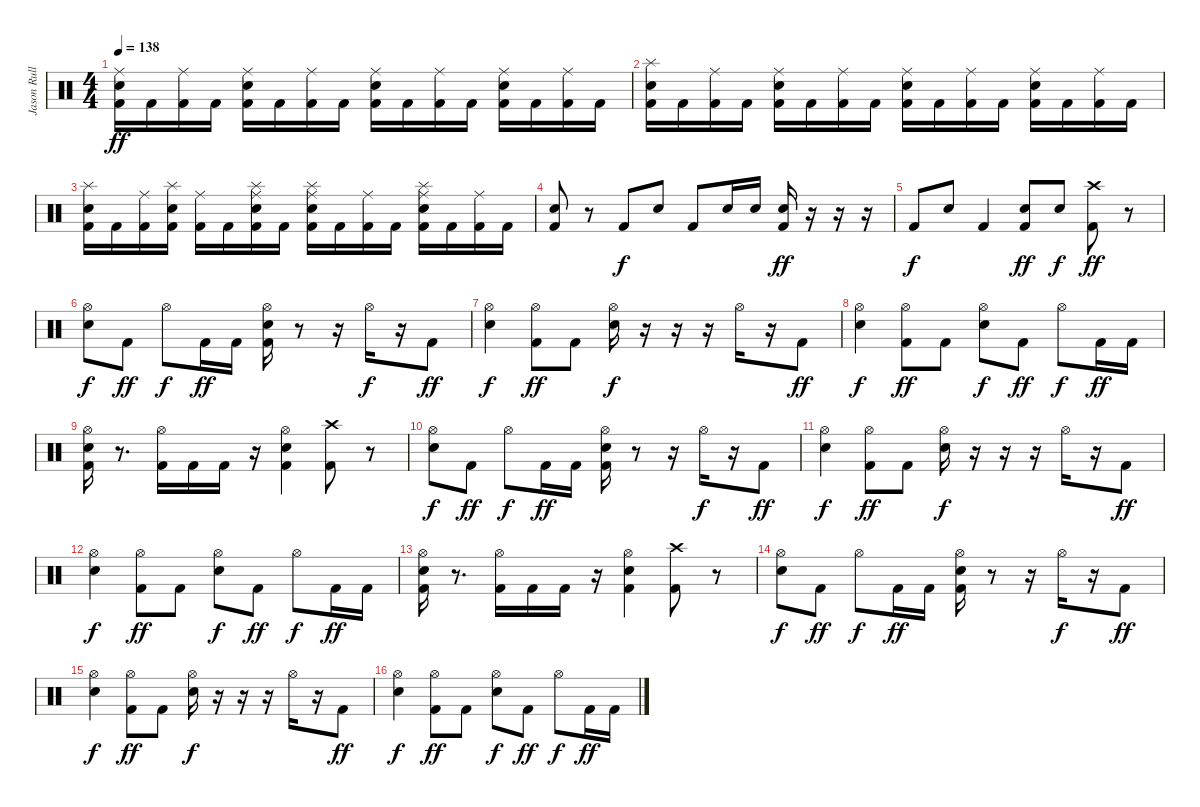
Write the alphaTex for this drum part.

\track ("Jason Rullo" "Jason Rull") {instrument percussion}
\staff {score}
\articulation defaults
\ts (4 4)
\tempo 138
\clef neutral
\ks c
("Kick (hit) 2" "Electric Snare (hit)" "Ride (middle)").16{dy ff} "Kick (hit) 2".16 ("Kick (hit) 2" "Ride (middle)").16 "Kick (hit) 2".16 ("Kick (hit) 2" "Electric Snare (hit)" "Ride (middle)").16 "Kick (hit) 2".16 ("Kick (hit) 2" "Ride (middle)").16 "Kick (hit) 2".16 ("Kick (hit) 2" "Electric Snare (hit)" "Ride (middle)").16 "Kick (hit) 2".16 ("Kick (hit) 2" "Ride (middle)").16 "Kick (hit) 2".16 ("Kick (hit) 2" "Electric Snare (hit)" "Ride (middle)").16 "Kick (hit) 2".16 ("Kick (hit) 2" "Ride (middle)").16 "Kick (hit) 2".16 |
("Kick (hit) 2" "Electric Snare (hit)" "Splash (hit)").16 "Kick (hit) 2".16 ("Kick (hit) 2" "Ride (middle)").16 "Kick (hit) 2".16 ("Kick (hit) 2" "Electric Snare (hit)" "Ride (middle)").16 "Kick (hit) 2".16 ("Kick (hit) 2" "Ride (middle)").16 "Kick (hit) 2".16 ("Kick (hit) 2" "Electric Snare (hit)" "Ride (middle)").16 "Kick (hit) 2".16 ("Kick (hit) 2" "Ride (middle)").16 "Kick (hit) 2".16 ("Kick (hit) 2" "Electric Snare (hit)" "Ride (middle)").16 "Kick (hit) 2".16 ("Kick (hit) 2" "Ride (middle)").16 "Kick (hit) 2".16 |
("Kick (hit) 2" "Electric Snare (hit)" "Splash (hit)").16 "Kick (hit) 2".16 ("Kick (hit) 2" "Ride (middle)").16 ("Kick (hit) 2" "Electric Snare (hit)" "Splash (hit)").16 ("Kick (hit) 2" "Ride (middle)").16 "Kick (hit) 2".16 ("Kick (hit) 2" "Electric Snare (hit)" "Ride (middle)" "Splash (hit)").16 "Kick (hit) 2".16 ("Kick (hit) 2" "Electric Snare (hit)" "Ride (middle)" "Splash (hit)").16 "Kick (hit) 2".16 ("Kick (hit) 2" "Ride (middle)").16 "Kick (hit) 2".16 ("Kick (hit) 2" "Electric Snare (hit)" "Ride (middle)" "Splash (hit)").16 "Kick (hit) 2".16 ("Kick (hit) 2" "Ride (middle)").16 "Kick (hit) 2".16 |
("Kick (hit) 2" "Electric Snare (hit)").8 r.8 "Kick (hit) 2".8{dy f} "Electric Snare (hit)".8 "Kick (hit) 2".8 "Electric Snare (hit)".16 "Electric Snare (hit)".16 ("Kick (hit) 2" "Electric Snare (hit)").16{dy ff} r.16 r.16 r.16 |
"Kick (hit) 2".8{dy f} "Electric Snare (hit)".8 "Kick (hit) 2".4 ("Kick (hit) 2" "Electric Snare (hit)").8{dy ff} "Electric Snare (hit)".8{dy f} ("Kick (hit) 2" "Crash high (hit)").8{dy ff} r.8 |
("Electric Snare (hit)" "Hi-Hat (open)").8{dy f} "Kick (hit) 2".8{dy ff} "Hi-Hat (open)".8{dy f} "Kick (hit) 2".16{dy ff} "Kick (hit) 2".16 ("Kick (hit) 2" "Electric Snare (hit)" "Hi-Hat (open)").16 r.8 r.16 "Hi-Hat (open)".16{dy f} r.16 "Kick (hit) 2".8{dy ff} |
("Electric Snare (hit)" "Hi-Hat (open)").4{dy f} ("Kick (hit) 2" "Hi-Hat (open)").8{dy ff} "Kick (hit) 2".8 ("Electric Snare (hit)" "Hi-Hat (open)").16{dy f} r.16 r.16 r.16 "Hi-Hat (open)".16 r.16 "Kick (hit) 2".8{dy ff} |
("Electric Snare (hit)" "Hi-Hat (open)").4{dy f} ("Kick (hit) 2" "Hi-Hat (open)").8{dy ff} "Kick (hit) 2".8 ("Electric Snare (hit)" "Hi-Hat (open)").8{dy f} "Kick (hit) 2".8{dy ff} "Hi-Hat (open)".8{dy f} "Kick (hit) 2".16{dy ff} "Kick (hit) 2".16 |
("Kick (hit) 2" "Electric Snare (hit)" "Hi-Hat (open)").16 r.8{d} ("Kick (hit) 2" "Hi-Hat (open)").16 "Kick (hit) 2".16 "Kick (hit) 2".16 r.16 ("Kick (hit) 2" "Electric Snare (hit)" "Hi-Hat (open)").4 ("Kick (hit) 2" "Crash high (hit)").8 r.8 |
("Electric Snare (hit)" "Hi-Hat (open)").8{dy f} "Kick (hit) 2".8{dy ff} "Hi-Hat (open)".8{dy f} "Kick (hit) 2".16{dy ff} "Kick (hit) 2".16 ("Kick (hit) 2" "Electric Snare (hit)" "Hi-Hat (open)").16 r.8 r.16 "Hi-Hat (open)".16{dy f} r.16 "Kick (hit) 2".8{dy ff} |
("Electric Snare (hit)" "Hi-Hat (open)").4{dy f} ("Kick (hit) 2" "Hi-Hat (open)").8{dy ff} "Kick (hit) 2".8 ("Electric Snare (hit)" "Hi-Hat (open)").16{dy f} r.16 r.16 r.16 "Hi-Hat (open)".16 r.16 "Kick (hit) 2".8{dy ff} |
("Electric Snare (hit)" "Hi-Hat (open)").4{dy f} ("Kick (hit) 2" "Hi-Hat (open)").8{dy ff} "Kick (hit) 2".8 ("Electric Snare (hit)" "Hi-Hat (open)").8{dy f} "Kick (hit) 2".8{dy ff} "Hi-Hat (open)".8{dy f} "Kick (hit) 2".16{dy ff} "Kick (hit) 2".16 |
("Kick (hit) 2" "Electric Snare (hit)" "Hi-Hat (open)").16 r.8{d} ("Kick (hit) 2" "Hi-Hat (open)").16 "Kick (hit) 2".16 "Kick (hit) 2".16 r.16 ("Kick (hit) 2" "Electric Snare (hit)" "Hi-Hat (open)").4 ("Kick (hit) 2" "Crash high (hit)").8 r.8 |
("Electric Snare (hit)" "Hi-Hat (open)").8{dy f} "Kick (hit) 2".8{dy ff} "Hi-Hat (open)".8{dy f} "Kick (hit) 2".16{dy ff} "Kick (hit) 2".16 ("Kick (hit) 2" "Electric Snare (hit)" "Hi-Hat (open)").16 r.8 r.16 "Hi-Hat (open)".16{dy f} r.16 "Kick (hit) 2".8{dy ff} |
("Electric Snare (hit)" "Hi-Hat (open)").4{dy f} ("Kick (hit) 2" "Hi-Hat (open)").8{dy ff} "Kick (hit) 2".8 ("Electric Snare (hit)" "Hi-Hat (open)").16{dy f} r.16 r.16 r.16 "Hi-Hat (open)".16 r.16 "Kick (hit) 2".8{dy ff} |
("Electric Snare (hit)" "Hi-Hat (open)").4{dy f} ("Kick (hit) 2" "Hi-Hat (open)").8{dy ff} "Kick (hit) 2".8 ("Electric Snare (hit)" "Hi-Hat (open)").8{dy f} "Kick (hit) 2".8{dy ff} "Hi-Hat (open)".8{dy f} "Kick (hit) 2".16{dy ff} "Kick (hit) 2".16
